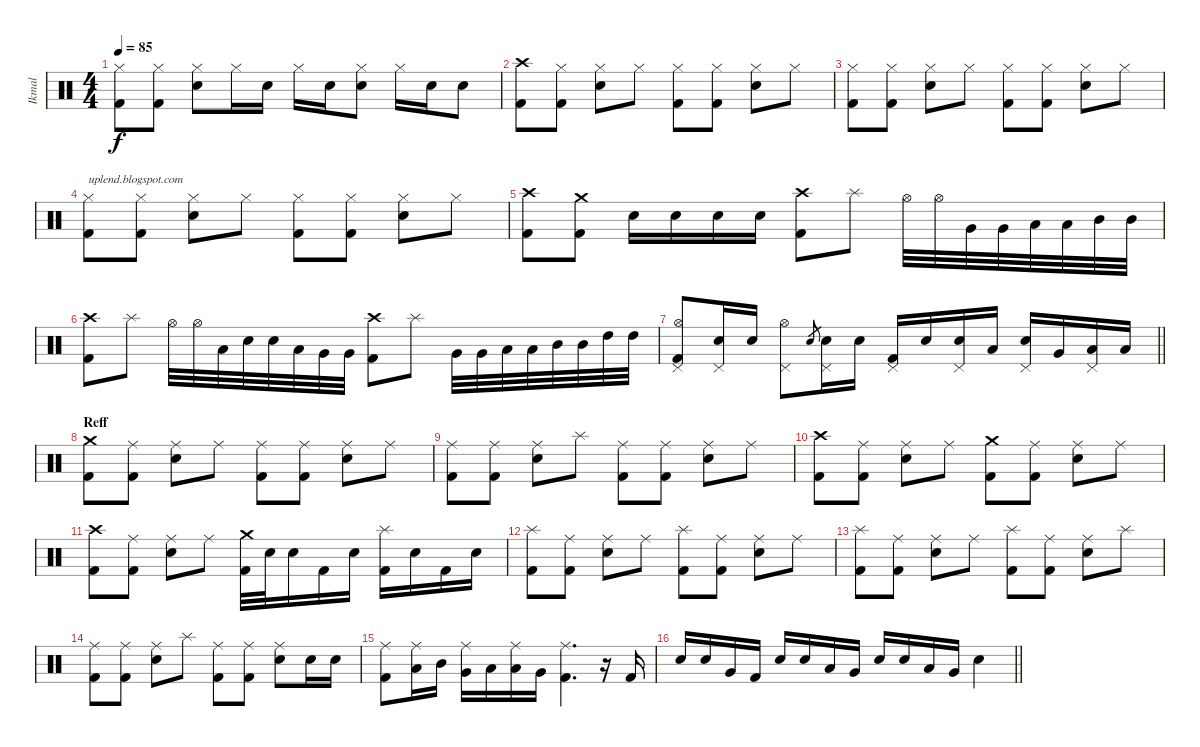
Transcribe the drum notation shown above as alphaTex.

\track ("Ikmal" "Ikmal") {instrument percussion}
\staff {score}
\articulation defaults
\ts (4 4)
\tempo 85
\clef neutral
\ks c
("Hi-Hat (closed)" "Kick (hit) 2").8{dy f} ("Hi-Hat (closed)" "Kick (hit) 2").8 ("Hi-Hat (closed)" "Electric Snare (hit)").8 "Hi-Hat (closed)".16 "Electric Snare (hit)".16 "Hi-Hat (closed)".16 "Electric Snare (hit)".16 ("Hi-Hat (closed)" "Electric Snare (hit)").8 "Hi-Hat (closed)".16 "Electric Snare (hit)".16 "Electric Snare (hit)".8 |
("Crash high (hit)" "Kick (hit) 2").8 ("Hi-Hat (closed)" "Kick (hit) 2").8 ("Hi-Hat (closed)" "Electric Snare (hit)").8 "Hi-Hat (closed)".8 ("Hi-Hat (closed)" "Kick (hit) 2").8 ("Hi-Hat (closed)" "Kick (hit) 2").8 ("Hi-Hat (closed)" "Electric Snare (hit)").8 "Hi-Hat (closed)".8 |
("Hi-Hat (closed)" "Kick (hit) 2").8 ("Hi-Hat (closed)" "Kick (hit) 2").8 ("Hi-Hat (closed)" "Electric Snare (hit)").8 "Hi-Hat (closed)".8 ("Hi-Hat (closed)" "Kick (hit) 2").8 ("Hi-Hat (closed)" "Kick (hit) 2").8 ("Hi-Hat (closed)" "Electric Snare (hit)").8 "Hi-Hat (closed)".8 |
("Hi-Hat (closed)" "Kick (hit) 2").8{txt "uplend.blogspot.com"} ("Hi-Hat (closed)" "Kick (hit) 2").8 ("Hi-Hat (closed)" "Electric Snare (hit)").8 "Hi-Hat (closed)".8 ("Hi-Hat (closed)" "Kick (hit) 2").8 ("Hi-Hat (closed)" "Kick (hit) 2").8 ("Hi-Hat (closed)" "Electric Snare (hit)").8 "Hi-Hat (closed)".8 |
("Crash high (hit)" "Kick (hit) 2").8 ("Crash medium (hit)" "Kick (hit) 2").8 "Electric Snare (hit)".16 "Electric Snare (hit)".16 "Electric Snare (hit)".16 "Electric Snare (hit)".16 ("Crash high (hit)" "Kick (hit) 2").8 "Splash (hit)".8 "Hi-Hat (open)".32 "Hi-Hat (open)".32 "Very Low Tom (hit)".32 "Very Low Tom (hit)".32 "Low Tom (hit)".32 "Low Tom (hit)".32 "Mid Tom (hit)".32 "Mid Tom (hit)".32 |
("Crash high (hit)" "Kick (hit) 2").8 "Splash (hit)".8 "Hi-Hat (open)".32 "Hi-Hat (open)".32 "Low Tom (hit)".32 "Electric Snare (hit)".32 "Electric Snare (hit)".32 "Low Tom (hit)".32 "Very Low Tom (hit)".32 "Very Low Tom (hit)".32 ("Crash high (hit)" "Kick (hit) 2").8 "Splash (hit)".8 "Very Low Tom (hit)".32 "Very Low Tom (hit)".32 "Low Tom (hit)".32 "Low Tom (hit)".32 "Mid Tom (hit)".32 "Mid Tom (hit)".32 "High Tom (hit)".32 "High Tom (hit)".32 |
\barLineRight lightlight
("Pedal Hi-Hat (hit)" "Hi-Hat (open)" "Kick (hit) 2").8 ("Pedal Hi-Hat (hit)" "Electric Snare (hit)").16 "Electric Snare (hit)".16 ("Pedal Hi-Hat (hit)" "Hi-Hat (open)").8 "Electric Snare (hit)".8{gr} ("Pedal Hi-Hat (hit)" "Electric Snare (hit)").16 "Electric Snare (hit)".16 ("Pedal Hi-Hat (hit)" "Kick (hit) 2").16 "Electric Snare (hit)".16 ("Pedal Hi-Hat (hit)" "Electric Snare (hit)").16 "Low Tom (hit)".16 ("Pedal Hi-Hat (hit)" "Electric Snare (hit)").16 "Very Low Tom (hit)".16 ("Pedal Hi-Hat (hit)" "Low Tom (hit)").16 "Low Floor Tom (hit)".16 |
\section ("" "Reff")
("Crash medium (hit)" "Kick (hit) 2").8 ("Ride (middle)" "Kick (hit) 2").8 ("Ride (middle)" "Electric Snare (hit)").8 "Ride (middle)".8 ("Ride (middle)" "Kick (hit) 2").8 ("Ride (middle)" "Kick (hit) 2").8 ("Ride (middle)" "Electric Snare (hit)").8 "Ride (middle)".8 |
("Ride (middle)" "Kick (hit) 2").8 ("Ride (middle)" "Kick (hit) 2").8 ("Ride (middle)" "Electric Snare (hit)").8 "Splash (hit)".8 ("Ride (middle)" "Kick (hit) 2").8 ("Ride (middle)" "Kick (hit) 2").8 ("Ride (middle)" "Electric Snare (hit)").8 "Ride (middle)".8 |
("Crash high (hit)" "Kick (hit) 2").8 ("Ride (middle)" "Kick (hit) 2").8 ("Ride (middle)" "Electric Snare (hit)").8 "Ride (middle)".8 ("Crash medium (hit)" "Kick (hit) 2").8 ("Ride (middle)" "Kick (hit) 2").8 ("Ride (middle)" "Electric Snare (hit)").8 "Ride (middle)".8 |
("Crash high (hit)" "Kick (hit) 2").8 ("Ride (middle)" "Kick (hit) 2").8 ("Ride (middle)" "Electric Snare (hit)").8 "Ride (middle)".8 ("Crash medium (hit)" "Kick (hit) 2").32 "Electric Snare (hit)".32 "Electric Snare (hit)".16 "Kick (hit) 2".16 "Electric Snare (hit)".16 ("Splash (hit)" "Kick (hit) 2").16 "Electric Snare (hit)".16 "Kick (hit) 2".16 "Electric Snare (hit)".16 |
("Splash (hit)" "Kick (hit) 2").8 ("Ride (middle)" "Kick (hit) 2").8 ("Ride (middle)" "Electric Snare (hit)").8 "Ride (middle)".8 ("Splash (hit)" "Kick (hit) 2").8 ("Ride (middle)" "Kick (hit) 2").8 ("Ride (middle)" "Electric Snare (hit)").8 "Ride (middle)".8 |
("Splash (hit)" "Kick (hit) 2").8 ("Ride (middle)" "Kick (hit) 2").8 ("Ride (middle)" "Electric Snare (hit)").8 "Ride (middle)".8 ("Splash (hit)" "Kick (hit) 2").8 ("Ride (middle)" "Kick (hit) 2").8 ("Ride (middle)" "Electric Snare (hit)").8 "Splash (hit)".8 |
("Ride (middle)" "Kick (hit) 2").8 ("Ride (middle)" "Kick (hit) 2").8 ("Ride (middle)" "Electric Snare (hit)").8 "Splash (hit)".8 ("Ride (middle)" "Kick (hit) 2").8 ("Ride (middle)" "Kick (hit) 2").8 ("Ride (middle)" "Electric Snare (hit)").8 "Electric Snare (hit)".16 "Electric Snare (hit)".16 |
("Ride (middle)" "Kick (hit) 2").8 ("Ride (middle)" "Low Tom (hit)").16 "Mid Tom (hit)".16 ("Ride (middle)" "Very Low Tom (hit)").16 "Low Tom (hit)".16 ("Ride (middle)" "Low Floor Tom (hit)").16 "Very Low Tom (hit)".16 ("Ride (middle)" "Kick (hit) 2").4{d} r.16 "Kick (hit) 2".16 |
\barLineRight lightlight "Electric Snare (hit)".16 "Electric Snare (hit)".16 "Very Low Tom (hit)".16 "Kick (hit) 2".16 "Electric Snare (hit)".16 "Electric Snare (hit)".16 "Low Floor Tom (hit)".16 "Very Low Tom (hit)".16 "Electric Snare (hit)".16 "Electric Snare (hit)".16 "Low Tom (hit)".16 "Very Low Tom (hit)".16 "Electric Snare (hit)".4
